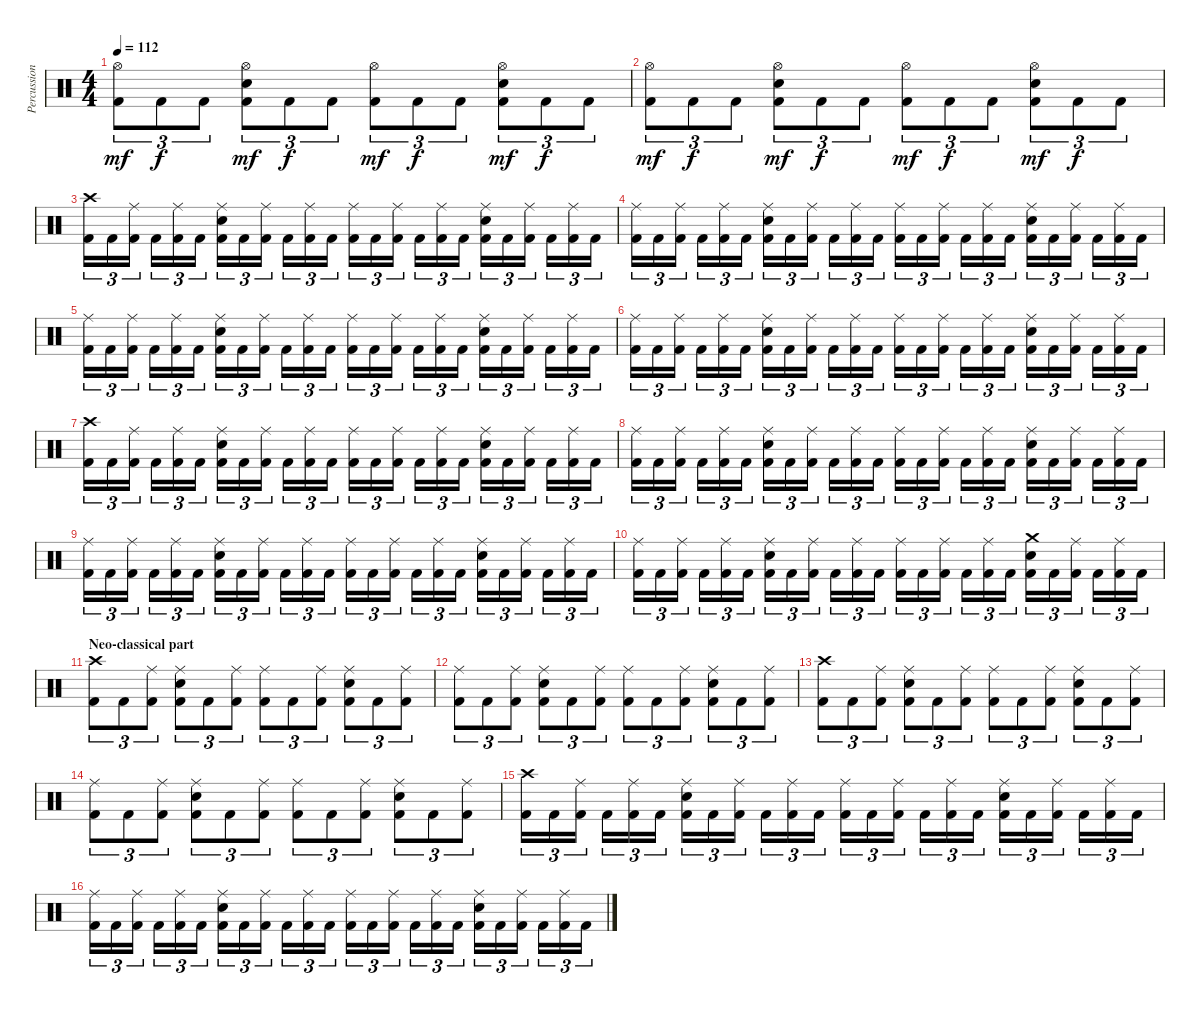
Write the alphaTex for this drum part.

\track ("Percussion" "Percussion") {instrument percussion}
\staff {score}
\articulation defaults
\ts (4 4)
\tempo 112
\clef neutral
\ks c
("Hi-Hat (open)" "Kick (hit) 2").8{tu (3 2) dy mf} "Kick (hit) 2".8{tu (3 2) dy f} "Kick (hit) 2".8{tu (3 2)} ("Hi-Hat (open)" "Electric Snare (hit)" "Kick (hit) 2").8{tu (3 2) dy mf} "Kick (hit) 2".8{tu (3 2) dy f} "Kick (hit) 2".8{tu (3 2)} ("Hi-Hat (open)" "Kick (hit) 2").8{tu (3 2) dy mf} "Kick (hit) 2".8{tu (3 2) dy f} "Kick (hit) 2".8{tu (3 2)} ("Hi-Hat (open)" "Electric Snare (hit)" "Kick (hit) 2").8{tu (3 2) dy mf} "Kick (hit) 2".8{tu (3 2) dy f} "Kick (hit) 2".8{tu (3 2)} |
("Hi-Hat (open)" "Kick (hit) 2").8{tu (3 2) dy mf} "Kick (hit) 2".8{tu (3 2) dy f} "Kick (hit) 2".8{tu (3 2)} ("Hi-Hat (open)" "Electric Snare (hit)" "Kick (hit) 2").8{tu (3 2) dy mf} "Kick (hit) 2".8{tu (3 2) dy f} "Kick (hit) 2".8{tu (3 2)} ("Hi-Hat (open)" "Kick (hit) 2").8{tu (3 2) dy mf} "Kick (hit) 2".8{tu (3 2) dy f} "Kick (hit) 2".8{tu (3 2)} ("Hi-Hat (open)" "Electric Snare (hit)" "Kick (hit) 2").8{tu (3 2) dy mf} "Kick (hit) 2".8{tu (3 2) dy f} "Kick (hit) 2".8{tu (3 2)} |
("Crash high (hit)" "Kick (hit) 2").16{tu (3 2)} "Kick (hit) 2".16{tu (3 2)} ("Ride (middle)" "Kick (hit) 2").16{tu (3 2)} "Kick (hit) 2".16{tu (3 2)} ("Ride (middle)" "Kick (hit) 2").16{tu (3 2)} "Kick (hit) 2".16{tu (3 2)} ("Ride (middle)" "Electric Snare (hit)" "Kick (hit) 2").16{tu (3 2)} "Kick (hit) 2".16{tu (3 2)} ("Ride (middle)" "Kick (hit) 2").16{tu (3 2)} "Kick (hit) 2".16{tu (3 2)} ("Ride (middle)" "Kick (hit) 2").16{tu (3 2)} "Kick (hit) 2".16{tu (3 2)} ("Ride (middle)" "Kick (hit) 2").16{tu (3 2)} "Kick (hit) 2".16{tu (3 2)} ("Ride (middle)" "Kick (hit) 2").16{tu (3 2)} "Kick (hit) 2".16{tu (3 2)} ("Ride (middle)" "Kick (hit) 2").16{tu (3 2)} "Kick (hit) 2".16{tu (3 2)} ("Ride (middle)" "Electric Snare (hit)" "Kick (hit) 2").16{tu (3 2)} "Kick (hit) 2".16{tu (3 2)} ("Ride (middle)" "Kick (hit) 2").16{tu (3 2)} "Kick (hit) 2".16{tu (3 2)} ("Ride (middle)" "Kick (hit) 2").16{tu (3 2)} "Kick (hit) 2".16{tu (3 2)} |
("Ride (middle)" "Kick (hit) 2").16{tu (3 2)} "Kick (hit) 2".16{tu (3 2)} ("Ride (middle)" "Kick (hit) 2").16{tu (3 2)} "Kick (hit) 2".16{tu (3 2)} ("Ride (middle)" "Kick (hit) 2").16{tu (3 2)} "Kick (hit) 2".16{tu (3 2)} ("Ride (middle)" "Electric Snare (hit)" "Kick (hit) 2").16{tu (3 2)} "Kick (hit) 2".16{tu (3 2)} ("Ride (middle)" "Kick (hit) 2").16{tu (3 2)} "Kick (hit) 2".16{tu (3 2)} ("Ride (middle)" "Kick (hit) 2").16{tu (3 2)} "Kick (hit) 2".16{tu (3 2)} ("Ride (middle)" "Kick (hit) 2").16{tu (3 2)} "Kick (hit) 2".16{tu (3 2)} ("Ride (middle)" "Kick (hit) 2").16{tu (3 2)} "Kick (hit) 2".16{tu (3 2)} ("Ride (middle)" "Kick (hit) 2").16{tu (3 2)} "Kick (hit) 2".16{tu (3 2)} ("Ride (middle)" "Electric Snare (hit)" "Kick (hit) 2").16{tu (3 2)} "Kick (hit) 2".16{tu (3 2)} ("Ride (middle)" "Kick (hit) 2").16{tu (3 2)} "Kick (hit) 2".16{tu (3 2)} ("Ride (middle)" "Kick (hit) 2").16{tu (3 2)} "Kick (hit) 2".16{tu (3 2)} |
("Ride (middle)" "Kick (hit) 2").16{tu (3 2)} "Kick (hit) 2".16{tu (3 2)} ("Ride (middle)" "Kick (hit) 2").16{tu (3 2)} "Kick (hit) 2".16{tu (3 2)} ("Ride (middle)" "Kick (hit) 2").16{tu (3 2)} "Kick (hit) 2".16{tu (3 2)} ("Ride (middle)" "Electric Snare (hit)" "Kick (hit) 2").16{tu (3 2)} "Kick (hit) 2".16{tu (3 2)} ("Ride (middle)" "Kick (hit) 2").16{tu (3 2)} "Kick (hit) 2".16{tu (3 2)} ("Ride (middle)" "Kick (hit) 2").16{tu (3 2)} "Kick (hit) 2".16{tu (3 2)} ("Ride (middle)" "Kick (hit) 2").16{tu (3 2)} "Kick (hit) 2".16{tu (3 2)} ("Ride (middle)" "Kick (hit) 2").16{tu (3 2)} "Kick (hit) 2".16{tu (3 2)} ("Ride (middle)" "Kick (hit) 2").16{tu (3 2)} "Kick (hit) 2".16{tu (3 2)} ("Ride (middle)" "Electric Snare (hit)" "Kick (hit) 2").16{tu (3 2)} "Kick (hit) 2".16{tu (3 2)} ("Ride (middle)" "Kick (hit) 2").16{tu (3 2)} "Kick (hit) 2".16{tu (3 2)} ("Ride (middle)" "Kick (hit) 2").16{tu (3 2)} "Kick (hit) 2".16{tu (3 2)} |
("Ride (middle)" "Kick (hit) 2").16{tu (3 2)} "Kick (hit) 2".16{tu (3 2)} ("Ride (middle)" "Kick (hit) 2").16{tu (3 2)} "Kick (hit) 2".16{tu (3 2)} ("Ride (middle)" "Kick (hit) 2").16{tu (3 2)} "Kick (hit) 2".16{tu (3 2)} ("Ride (middle)" "Electric Snare (hit)" "Kick (hit) 2").16{tu (3 2)} "Kick (hit) 2".16{tu (3 2)} ("Ride (middle)" "Kick (hit) 2").16{tu (3 2)} "Kick (hit) 2".16{tu (3 2)} ("Ride (middle)" "Kick (hit) 2").16{tu (3 2)} "Kick (hit) 2".16{tu (3 2)} ("Ride (middle)" "Kick (hit) 2").16{tu (3 2)} "Kick (hit) 2".16{tu (3 2)} ("Ride (middle)" "Kick (hit) 2").16{tu (3 2)} "Kick (hit) 2".16{tu (3 2)} ("Ride (middle)" "Kick (hit) 2").16{tu (3 2)} "Kick (hit) 2".16{tu (3 2)} ("Ride (middle)" "Electric Snare (hit)" "Kick (hit) 2").16{tu (3 2)} "Kick (hit) 2".16{tu (3 2)} ("Ride (middle)" "Kick (hit) 2").16{tu (3 2)} "Kick (hit) 2".16{tu (3 2)} ("Ride (middle)" "Kick (hit) 2").16{tu (3 2)} "Kick (hit) 2".16{tu (3 2)} |
("Crash high (hit)" "Kick (hit) 2").16{tu (3 2)} "Kick (hit) 2".16{tu (3 2)} ("Ride (middle)" "Kick (hit) 2").16{tu (3 2)} "Kick (hit) 2".16{tu (3 2)} ("Ride (middle)" "Kick (hit) 2").16{tu (3 2)} "Kick (hit) 2".16{tu (3 2)} ("Ride (middle)" "Electric Snare (hit)" "Kick (hit) 2").16{tu (3 2)} "Kick (hit) 2".16{tu (3 2)} ("Ride (middle)" "Kick (hit) 2").16{tu (3 2)} "Kick (hit) 2".16{tu (3 2)} ("Ride (middle)" "Kick (hit) 2").16{tu (3 2)} "Kick (hit) 2".16{tu (3 2)} ("Ride (middle)" "Kick (hit) 2").16{tu (3 2)} "Kick (hit) 2".16{tu (3 2)} ("Ride (middle)" "Kick (hit) 2").16{tu (3 2)} "Kick (hit) 2".16{tu (3 2)} ("Ride (middle)" "Kick (hit) 2").16{tu (3 2)} "Kick (hit) 2".16{tu (3 2)} ("Ride (middle)" "Electric Snare (hit)" "Kick (hit) 2").16{tu (3 2)} "Kick (hit) 2".16{tu (3 2)} ("Ride (middle)" "Kick (hit) 2").16{tu (3 2)} "Kick (hit) 2".16{tu (3 2)} ("Ride (middle)" "Kick (hit) 2").16{tu (3 2)} "Kick (hit) 2".16{tu (3 2)} |
("Ride (middle)" "Kick (hit) 2").16{tu (3 2)} "Kick (hit) 2".16{tu (3 2)} ("Ride (middle)" "Kick (hit) 2").16{tu (3 2)} "Kick (hit) 2".16{tu (3 2)} ("Ride (middle)" "Kick (hit) 2").16{tu (3 2)} "Kick (hit) 2".16{tu (3 2)} ("Ride (middle)" "Electric Snare (hit)" "Kick (hit) 2").16{tu (3 2)} "Kick (hit) 2".16{tu (3 2)} ("Ride (middle)" "Kick (hit) 2").16{tu (3 2)} "Kick (hit) 2".16{tu (3 2)} ("Ride (middle)" "Kick (hit) 2").16{tu (3 2)} "Kick (hit) 2".16{tu (3 2)} ("Ride (middle)" "Kick (hit) 2").16{tu (3 2)} "Kick (hit) 2".16{tu (3 2)} ("Ride (middle)" "Kick (hit) 2").16{tu (3 2)} "Kick (hit) 2".16{tu (3 2)} ("Ride (middle)" "Kick (hit) 2").16{tu (3 2)} "Kick (hit) 2".16{tu (3 2)} ("Ride (middle)" "Electric Snare (hit)" "Kick (hit) 2").16{tu (3 2)} "Kick (hit) 2".16{tu (3 2)} ("Ride (middle)" "Kick (hit) 2").16{tu (3 2)} "Kick (hit) 2".16{tu (3 2)} ("Ride (middle)" "Kick (hit) 2").16{tu (3 2)} "Kick (hit) 2".16{tu (3 2)} |
("Ride (middle)" "Kick (hit) 2").16{tu (3 2)} "Kick (hit) 2".16{tu (3 2)} ("Ride (middle)" "Kick (hit) 2").16{tu (3 2)} "Kick (hit) 2".16{tu (3 2)} ("Ride (middle)" "Kick (hit) 2").16{tu (3 2)} "Kick (hit) 2".16{tu (3 2)} ("Ride (middle)" "Electric Snare (hit)" "Kick (hit) 2").16{tu (3 2)} "Kick (hit) 2".16{tu (3 2)} ("Ride (middle)" "Kick (hit) 2").16{tu (3 2)} "Kick (hit) 2".16{tu (3 2)} ("Ride (middle)" "Kick (hit) 2").16{tu (3 2)} "Kick (hit) 2".16{tu (3 2)} ("Ride (middle)" "Kick (hit) 2").16{tu (3 2)} "Kick (hit) 2".16{tu (3 2)} ("Ride (middle)" "Kick (hit) 2").16{tu (3 2)} "Kick (hit) 2".16{tu (3 2)} ("Ride (middle)" "Kick (hit) 2").16{tu (3 2)} "Kick (hit) 2".16{tu (3 2)} ("Ride (middle)" "Electric Snare (hit)" "Kick (hit) 2").16{tu (3 2)} "Kick (hit) 2".16{tu (3 2)} ("Ride (middle)" "Kick (hit) 2").16{tu (3 2)} "Kick (hit) 2".16{tu (3 2)} ("Ride (middle)" "Kick (hit) 2").16{tu (3 2)} "Kick (hit) 2".16{tu (3 2)} |
("Ride (middle)" "Kick (hit) 2").16{tu (3 2)} "Kick (hit) 2".16{tu (3 2)} ("Ride (middle)" "Kick (hit) 2").16{tu (3 2)} "Kick (hit) 2".16{tu (3 2)} ("Ride (middle)" "Kick (hit) 2").16{tu (3 2)} "Kick (hit) 2".16{tu (3 2)} ("Ride (middle)" "Electric Snare (hit)" "Kick (hit) 2").16{tu (3 2)} "Kick (hit) 2".16{tu (3 2)} ("Ride (middle)" "Kick (hit) 2").16{tu (3 2)} "Kick (hit) 2".16{tu (3 2)} ("Ride (middle)" "Kick (hit) 2").16{tu (3 2)} "Kick (hit) 2".16{tu (3 2)} ("Ride (middle)" "Kick (hit) 2").16{tu (3 2)} "Kick (hit) 2".16{tu (3 2)} ("Ride (middle)" "Kick (hit) 2").16{tu (3 2)} "Kick (hit) 2".16{tu (3 2)} ("Ride (middle)" "Kick (hit) 2").16{tu (3 2)} "Kick (hit) 2".16{tu (3 2)} ("Crash medium (hit)" "Electric Snare (hit)" "Kick (hit) 2").16{tu (3 2)} "Kick (hit) 2".16{tu (3 2)} ("Ride (middle)" "Kick (hit) 2").16{tu (3 2)} "Kick (hit) 2".16{tu (3 2)} ("Ride (middle)" "Kick (hit) 2").16{tu (3 2)} "Kick (hit) 2".16{tu (3 2)} |
\section ("" "Neo-classical part")
("Crash high (hit)" "Kick (hit) 2").8{tu (3 2)} "Kick (hit) 2".8{tu (3 2)} ("Ride (middle)" "Kick (hit) 2").8{tu (3 2)} ("Ride (middle)" "Electric Snare (hit)" "Kick (hit) 2").8{tu (3 2)} "Kick (hit) 2".8{tu (3 2)} ("Ride (middle)" "Kick (hit) 2").8{tu (3 2)} ("Ride (middle)" "Kick (hit) 2").8{tu (3 2)} "Kick (hit) 2".8{tu (3 2)} ("Ride (middle)" "Kick (hit) 2").8{tu (3 2)} ("Ride (middle)" "Electric Snare (hit)" "Kick (hit) 2").8{tu (3 2)} "Kick (hit) 2".8{tu (3 2)} ("Ride (middle)" "Kick (hit) 2").8{tu (3 2)} |
("Ride (middle)" "Kick (hit) 2").8{tu (3 2)} "Kick (hit) 2".8{tu (3 2)} ("Ride (middle)" "Kick (hit) 2").8{tu (3 2)} ("Ride (middle)" "Electric Snare (hit)" "Kick (hit) 2").8{tu (3 2)} "Kick (hit) 2".8{tu (3 2)} ("Ride (middle)" "Kick (hit) 2").8{tu (3 2)} ("Ride (middle)" "Kick (hit) 2").8{tu (3 2)} "Kick (hit) 2".8{tu (3 2)} ("Ride (middle)" "Kick (hit) 2").8{tu (3 2)} ("Ride (middle)" "Electric Snare (hit)" "Kick (hit) 2").8{tu (3 2)} "Kick (hit) 2".8{tu (3 2)} ("Ride (middle)" "Kick (hit) 2").8{tu (3 2)} |
("Crash high (hit)" "Kick (hit) 2").8{tu (3 2)} "Kick (hit) 2".8{tu (3 2)} ("Ride (middle)" "Kick (hit) 2").8{tu (3 2)} ("Ride (middle)" "Electric Snare (hit)" "Kick (hit) 2").8{tu (3 2)} "Kick (hit) 2".8{tu (3 2)} ("Ride (middle)" "Kick (hit) 2").8{tu (3 2)} ("Ride (middle)" "Kick (hit) 2").8{tu (3 2)} "Kick (hit) 2".8{tu (3 2)} ("Ride (middle)" "Kick (hit) 2").8{tu (3 2)} ("Ride (middle)" "Electric Snare (hit)" "Kick (hit) 2").8{tu (3 2)} "Kick (hit) 2".8{tu (3 2)} ("Ride (middle)" "Kick (hit) 2").8{tu (3 2)} |
("Ride (middle)" "Kick (hit) 2").8{tu (3 2)} "Kick (hit) 2".8{tu (3 2)} ("Ride (middle)" "Kick (hit) 2").8{tu (3 2)} ("Ride (middle)" "Electric Snare (hit)" "Kick (hit) 2").8{tu (3 2)} "Kick (hit) 2".8{tu (3 2)} ("Ride (middle)" "Kick (hit) 2").8{tu (3 2)} ("Ride (middle)" "Kick (hit) 2").8{tu (3 2)} "Kick (hit) 2".8{tu (3 2)} ("Ride (middle)" "Kick (hit) 2").8{tu (3 2)} ("Ride (middle)" "Electric Snare (hit)" "Kick (hit) 2").8{tu (3 2)} "Kick (hit) 2".8{tu (3 2)} ("Ride (middle)" "Kick (hit) 2").8{tu (3 2)} |
("Crash high (hit)" "Kick (hit) 2").16{tu (3 2)} "Kick (hit) 2".16{tu (3 2)} ("Ride (middle)" "Kick (hit) 2").16{tu (3 2)} "Kick (hit) 2".16{tu (3 2)} ("Ride (middle)" "Kick (hit) 2").16{tu (3 2)} "Kick (hit) 2".16{tu (3 2)} ("Ride (middle)" "Electric Snare (hit)" "Kick (hit) 2").16{tu (3 2)} "Kick (hit) 2".16{tu (3 2)} ("Ride (middle)" "Kick (hit) 2").16{tu (3 2)} "Kick (hit) 2".16{tu (3 2)} ("Ride (middle)" "Kick (hit) 2").16{tu (3 2)} "Kick (hit) 2".16{tu (3 2)} ("Ride (middle)" "Kick (hit) 2").16{tu (3 2)} "Kick (hit) 2".16{tu (3 2)} ("Ride (middle)" "Kick (hit) 2").16{tu (3 2)} "Kick (hit) 2".16{tu (3 2)} ("Ride (middle)" "Kick (hit) 2").16{tu (3 2)} "Kick (hit) 2".16{tu (3 2)} ("Ride (middle)" "Electric Snare (hit)" "Kick (hit) 2").16{tu (3 2)} "Kick (hit) 2".16{tu (3 2)} ("Ride (middle)" "Kick (hit) 2").16{tu (3 2)} "Kick (hit) 2".16{tu (3 2)} ("Ride (middle)" "Kick (hit) 2").16{tu (3 2)} "Kick (hit) 2".16{tu (3 2)} |
("Ride (middle)" "Kick (hit) 2").16{tu (3 2)} "Kick (hit) 2".16{tu (3 2)} ("Ride (middle)" "Kick (hit) 2").16{tu (3 2)} "Kick (hit) 2".16{tu (3 2)} ("Ride (middle)" "Kick (hit) 2").16{tu (3 2)} "Kick (hit) 2".16{tu (3 2)} ("Ride (middle)" "Electric Snare (hit)" "Kick (hit) 2").16{tu (3 2)} "Kick (hit) 2".16{tu (3 2)} ("Ride (middle)" "Kick (hit) 2").16{tu (3 2)} "Kick (hit) 2".16{tu (3 2)} ("Ride (middle)" "Kick (hit) 2").16{tu (3 2)} "Kick (hit) 2".16{tu (3 2)} ("Ride (middle)" "Kick (hit) 2").16{tu (3 2)} "Kick (hit) 2".16{tu (3 2)} ("Ride (middle)" "Kick (hit) 2").16{tu (3 2)} "Kick (hit) 2".16{tu (3 2)} ("Ride (middle)" "Kick (hit) 2").16{tu (3 2)} "Kick (hit) 2".16{tu (3 2)} ("Ride (middle)" "Electric Snare (hit)" "Kick (hit) 2").16{tu (3 2)} "Kick (hit) 2".16{tu (3 2)} ("Ride (middle)" "Kick (hit) 2").16{tu (3 2)} "Kick (hit) 2".16{tu (3 2)} ("Ride (middle)" "Kick (hit) 2").16{tu (3 2)} "Kick (hit) 2".16{tu (3 2)}
